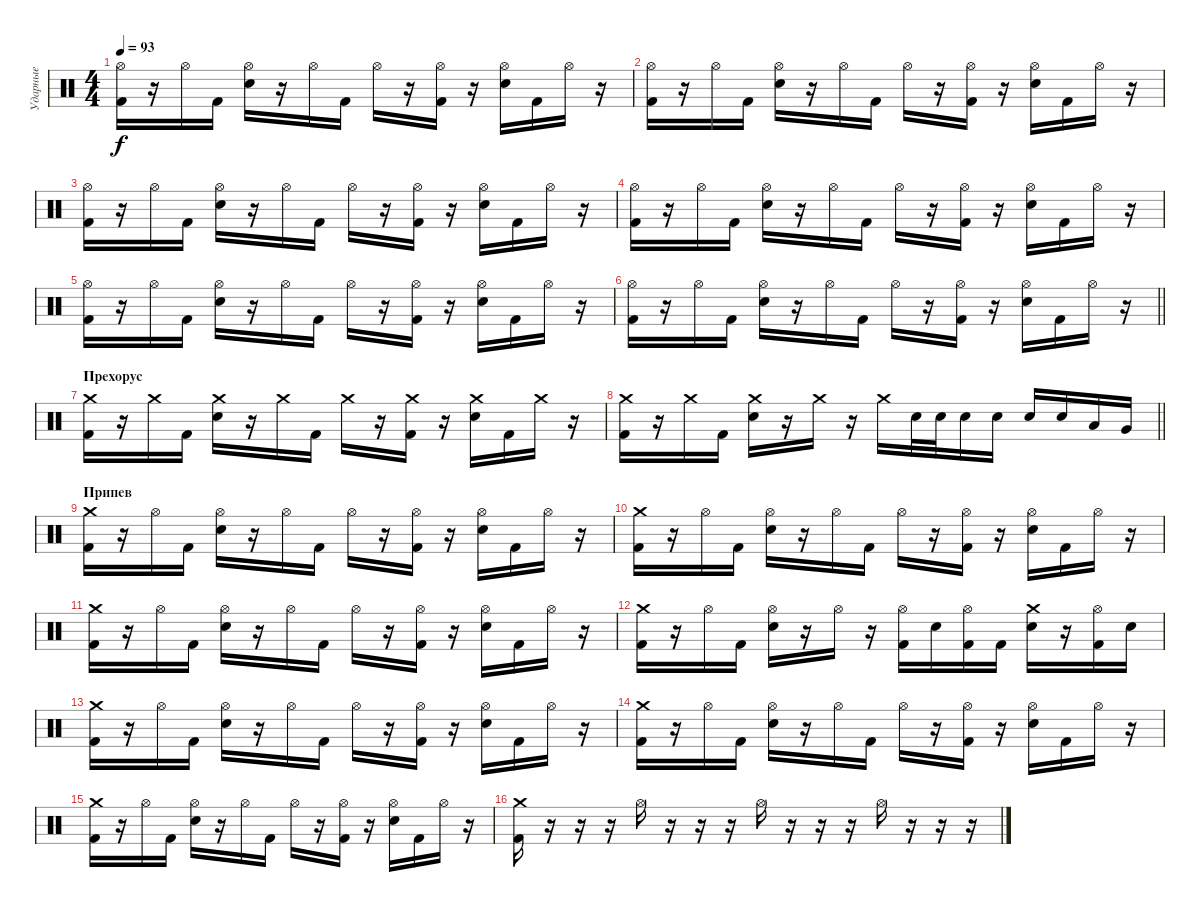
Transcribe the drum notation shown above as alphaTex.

\track ("Ударные" "Ударные") {instrument percussion}
\staff {score}
\articulation defaults
\ts (4 4)
\tempo 93
\clef neutral
\ks c
("Hi-Hat (open)" "Kick (hit) 2").16{dy f} r.16 "Hi-Hat (open)".16 "Kick (hit) 2".16 ("Hi-Hat (open)" "Electric Snare (hit)").16 r.16 "Hi-Hat (open)".16 "Kick (hit) 2".16 "Hi-Hat (open)".16 r.16 ("Hi-Hat (open)" "Kick (hit) 2").16 r.16 ("Hi-Hat (open)" "Electric Snare (hit)").16 "Kick (hit) 2".16 "Hi-Hat (open)".16 r.16 |
("Hi-Hat (open)" "Kick (hit) 2").16 r.16 "Hi-Hat (open)".16 "Kick (hit) 2".16 ("Hi-Hat (open)" "Electric Snare (hit)").16 r.16 "Hi-Hat (open)".16 "Kick (hit) 2".16 "Hi-Hat (open)".16 r.16 ("Hi-Hat (open)" "Kick (hit) 2").16 r.16 ("Hi-Hat (open)" "Electric Snare (hit)").16 "Kick (hit) 2".16 "Hi-Hat (open)".16 r.16 |
("Hi-Hat (open)" "Kick (hit) 2").16 r.16 "Hi-Hat (open)".16 "Kick (hit) 2".16 ("Hi-Hat (open)" "Electric Snare (hit)").16 r.16 "Hi-Hat (open)".16 "Kick (hit) 2".16 "Hi-Hat (open)".16 r.16 ("Hi-Hat (open)" "Kick (hit) 2").16 r.16 ("Hi-Hat (open)" "Electric Snare (hit)").16 "Kick (hit) 2".16 "Hi-Hat (open)".16 r.16 |
("Hi-Hat (open)" "Kick (hit) 2").16 r.16 "Hi-Hat (open)".16 "Kick (hit) 2".16 ("Hi-Hat (open)" "Electric Snare (hit)").16 r.16 "Hi-Hat (open)".16 "Kick (hit) 2".16 "Hi-Hat (open)".16 r.16 ("Hi-Hat (open)" "Kick (hit) 2").16 r.16 ("Hi-Hat (open)" "Electric Snare (hit)").16 "Kick (hit) 2".16 "Hi-Hat (open)".16 r.16 |
("Hi-Hat (open)" "Kick (hit) 2").16 r.16 "Hi-Hat (open)".16 "Kick (hit) 2".16 ("Hi-Hat (open)" "Electric Snare (hit)").16 r.16 "Hi-Hat (open)".16 "Kick (hit) 2".16 "Hi-Hat (open)".16 r.16 ("Hi-Hat (open)" "Kick (hit) 2").16 r.16 ("Hi-Hat (open)" "Electric Snare (hit)").16 "Kick (hit) 2".16 "Hi-Hat (open)".16 r.16 |
\barLineRight lightlight
("Hi-Hat (open)" "Kick (hit) 2").16 r.16 "Hi-Hat (open)".16 "Kick (hit) 2".16 ("Hi-Hat (open)" "Electric Snare (hit)").16 r.16 "Hi-Hat (open)".16 "Kick (hit) 2".16 "Hi-Hat (open)".16 r.16 ("Hi-Hat (open)" "Kick (hit) 2").16 r.16 ("Hi-Hat (open)" "Electric Snare (hit)").16 "Kick (hit) 2".16 "Hi-Hat (open)".16 r.16 |
\section ("" "Прехорус")
("Crash medium (hit)" "Kick (hit) 2").16 r.16 "Crash medium (hit)".16 "Kick (hit) 2".16 ("Crash medium (hit)" "Electric Snare (hit)").16 r.16 "Crash medium (hit)".16 "Kick (hit) 2".16 "Crash medium (hit)".16 r.16 ("Crash medium (hit)" "Kick (hit) 2").16 r.16 ("Crash medium (hit)" "Electric Snare (hit)").16 "Kick (hit) 2".16 "Crash medium (hit)".16 r.16 |
\barLineRight lightlight
("Crash medium (hit)" "Kick (hit) 2").16 r.16 "Crash medium (hit)".16 "Kick (hit) 2".16 ("Crash medium (hit)" "Electric Snare (hit)").16 r.16 "Crash medium (hit)".16 r.16 "Crash medium (hit)".16 "Electric Snare (hit)".32 "Electric Snare (hit)".32 "Electric Snare (hit)".16 "Electric Snare (hit)".16 "Electric Snare (hit)".16 "Electric Snare (hit)".16 "Low Tom (hit)".16 "Very Low Tom (hit)".16 |
\section ("" "Припев")
("Crash medium (hit)" "Kick (hit) 2").16 r.16 "Hi-Hat (open)".16 "Kick (hit) 2".16 ("Hi-Hat (open)" "Electric Snare (hit)").16 r.16 "Hi-Hat (open)".16 "Kick (hit) 2".16 "Hi-Hat (open)".16 r.16 ("Hi-Hat (open)" "Kick (hit) 2").16 r.16 ("Hi-Hat (open)" "Electric Snare (hit)").16 "Kick (hit) 2".16 "Hi-Hat (open)".16 r.16 |
("Crash medium (hit)" "Kick (hit) 2").16 r.16 "Hi-Hat (open)".16 "Kick (hit) 2".16 ("Hi-Hat (open)" "Electric Snare (hit)").16 r.16 "Hi-Hat (open)".16 "Kick (hit) 2".16 "Hi-Hat (open)".16 r.16 ("Hi-Hat (open)" "Kick (hit) 2").16 r.16 ("Hi-Hat (open)" "Electric Snare (hit)").16 "Kick (hit) 2".16 "Hi-Hat (open)".16 r.16 |
("Crash medium (hit)" "Kick (hit) 2").16 r.16 "Hi-Hat (open)".16 "Kick (hit) 2".16 ("Hi-Hat (open)" "Electric Snare (hit)").16 r.16 "Hi-Hat (open)".16 "Kick (hit) 2".16 "Hi-Hat (open)".16 r.16 ("Hi-Hat (open)" "Kick (hit) 2").16 r.16 ("Hi-Hat (open)" "Electric Snare (hit)").16 "Kick (hit) 2".16 "Hi-Hat (open)".16 r.16 |
("Crash medium (hit)" "Kick (hit) 2").16 r.16 "Hi-Hat (open)".16 "Kick (hit) 2".16 ("Hi-Hat (open)" "Electric Snare (hit)").16 r.16 "Hi-Hat (open)".16 r.16 ("Hi-Hat (open)" "Kick (hit) 2").16 "Electric Snare (hit)".16 ("Hi-Hat (open)" "Kick (hit) 2").16 "Kick (hit) 2".16 ("Crash medium (hit)" "Electric Snare (hit)").16 r.16 ("Hi-Hat (open)" "Kick (hit) 2").16 "Electric Snare (hit)".16 |
("Crash medium (hit)" "Kick (hit) 2").16 r.16 "Hi-Hat (open)".16 "Kick (hit) 2".16 ("Hi-Hat (open)" "Electric Snare (hit)").16 r.16 "Hi-Hat (open)".16 "Kick (hit) 2".16 "Hi-Hat (open)".16 r.16 ("Hi-Hat (open)" "Kick (hit) 2").16 r.16 ("Hi-Hat (open)" "Electric Snare (hit)").16 "Kick (hit) 2".16 "Hi-Hat (open)".16 r.16 |
("Crash medium (hit)" "Kick (hit) 2").16 r.16 "Hi-Hat (open)".16 "Kick (hit) 2".16 ("Hi-Hat (open)" "Electric Snare (hit)").16 r.16 "Hi-Hat (open)".16 "Kick (hit) 2".16 "Hi-Hat (open)".16 r.16 ("Hi-Hat (open)" "Kick (hit) 2").16 r.16 ("Hi-Hat (open)" "Electric Snare (hit)").16 "Kick (hit) 2".16 "Hi-Hat (open)".16 r.16 |
("Crash medium (hit)" "Kick (hit) 2").16 r.16 "Hi-Hat (open)".16 "Kick (hit) 2".16 ("Hi-Hat (open)" "Electric Snare (hit)").16 r.16 "Hi-Hat (open)".16 "Kick (hit) 2".16 "Hi-Hat (open)".16 r.16 ("Hi-Hat (open)" "Kick (hit) 2").16 r.16 ("Hi-Hat (open)" "Electric Snare (hit)").16 "Kick (hit) 2".16 "Hi-Hat (open)".16 r.16 |
("Crash medium (hit)" "Kick (hit) 2").16 r.16 r.16 r.16 "Hi-Hat (open)".16 r.16 r.16 r.16 "Hi-Hat (open)".16 r.16 r.16 r.16 "Hi-Hat (open)".16 r.16 r.16 r.16
